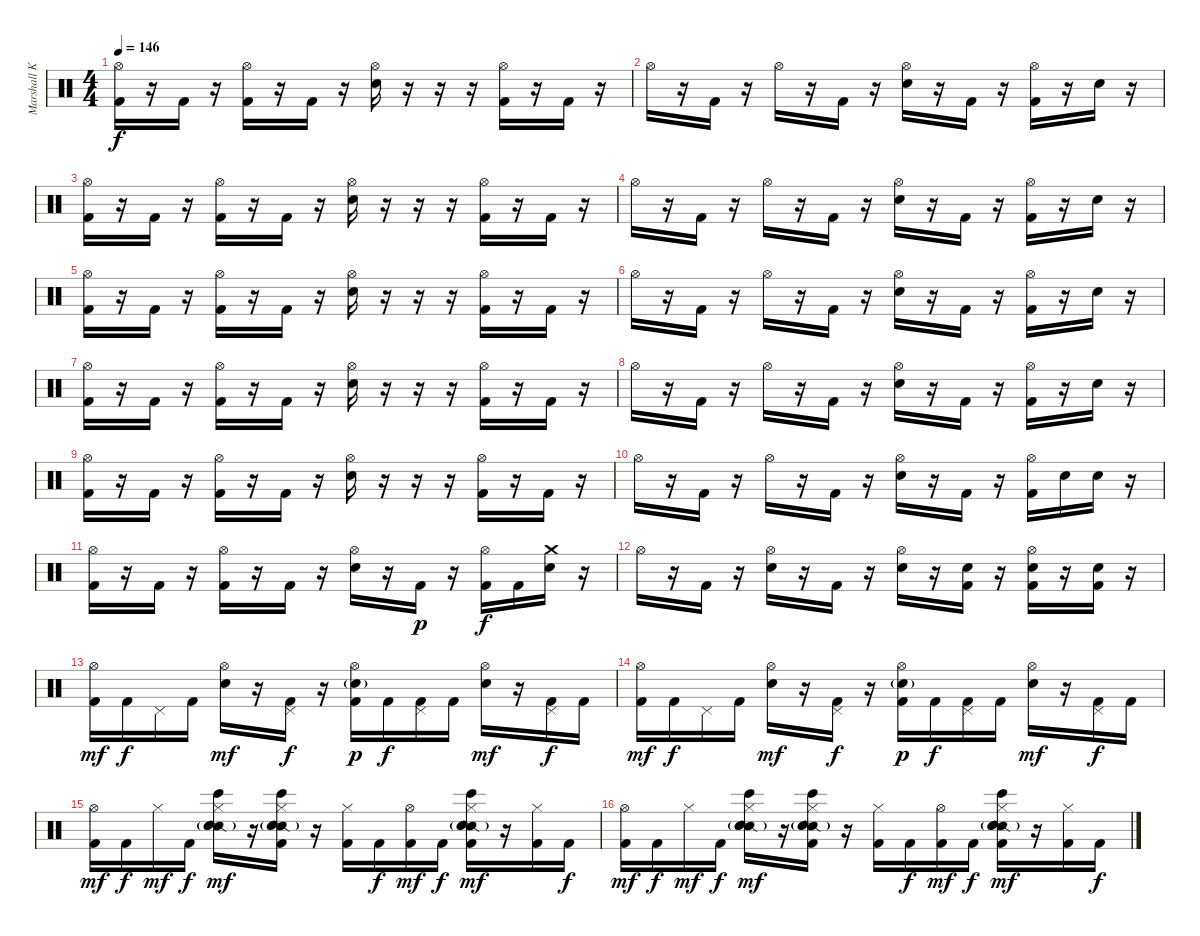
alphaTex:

\track ("Marshall Kilpatric" "Marshall K") {instrument percussion}
\staff {score}
\articulation defaults
\ts (4 4)
\tempo 146
\clef neutral
\ks c
("Hi-Hat (open)" "Kick (hit) 2").16{dy f} r.16 "Kick (hit) 2".16 r.16 ("Hi-Hat (open)" "Kick (hit) 2").16 r.16 "Kick (hit) 2".16 r.16 ("Hi-Hat (open)" "Electric Snare (hit)").16 r.16 r.16 r.16 ("Hi-Hat (open)" "Kick (hit) 2").16 r.16 "Kick (hit) 2".16 r.16 |
"Hi-Hat (open)".16 r.16 "Kick (hit) 2".16 r.16 "Hi-Hat (open)".16 r.16 "Kick (hit) 2".16 r.16 ("Hi-Hat (open)" "Electric Snare (hit)").16 r.16 "Kick (hit) 2".16 r.16 ("Hi-Hat (open)" "Kick (hit) 2").16 r.16 "Electric Snare (hit)".16 r.16 |
("Hi-Hat (open)" "Kick (hit) 2").16 r.16 "Kick (hit) 2".16 r.16 ("Hi-Hat (open)" "Kick (hit) 2").16 r.16 "Kick (hit) 2".16 r.16 ("Hi-Hat (open)" "Electric Snare (hit)").16 r.16 r.16 r.16 ("Hi-Hat (open)" "Kick (hit) 2").16 r.16 "Kick (hit) 2".16 r.16 |
"Hi-Hat (open)".16 r.16 "Kick (hit) 2".16 r.16 "Hi-Hat (open)".16 r.16 "Kick (hit) 2".16 r.16 ("Hi-Hat (open)" "Electric Snare (hit)").16 r.16 "Kick (hit) 2".16 r.16 ("Hi-Hat (open)" "Kick (hit) 2").16 r.16 "Electric Snare (hit)".16 r.16 |
("Hi-Hat (open)" "Kick (hit) 2").16 r.16 "Kick (hit) 2".16 r.16 ("Hi-Hat (open)" "Kick (hit) 2").16 r.16 "Kick (hit) 2".16 r.16 ("Hi-Hat (open)" "Electric Snare (hit)").16 r.16 r.16 r.16 ("Hi-Hat (open)" "Kick (hit) 2").16 r.16 "Kick (hit) 2".16 r.16 |
"Hi-Hat (open)".16 r.16 "Kick (hit) 2".16 r.16 "Hi-Hat (open)".16 r.16 "Kick (hit) 2".16 r.16 ("Hi-Hat (open)" "Electric Snare (hit)").16 r.16 "Kick (hit) 2".16 r.16 ("Hi-Hat (open)" "Kick (hit) 2").16 r.16 "Electric Snare (hit)".16 r.16 |
("Hi-Hat (open)" "Kick (hit) 2").16 r.16 "Kick (hit) 2".16 r.16 ("Hi-Hat (open)" "Kick (hit) 2").16 r.16 "Kick (hit) 2".16 r.16 ("Hi-Hat (open)" "Electric Snare (hit)").16 r.16 r.16 r.16 ("Hi-Hat (open)" "Kick (hit) 2").16 r.16 "Kick (hit) 2".16 r.16 |
"Hi-Hat (open)".16 r.16 "Kick (hit) 2".16 r.16 "Hi-Hat (open)".16 r.16 "Kick (hit) 2".16 r.16 ("Hi-Hat (open)" "Electric Snare (hit)").16 r.16 "Kick (hit) 2".16 r.16 ("Hi-Hat (open)" "Kick (hit) 2").16 r.16 "Electric Snare (hit)".16 r.16 |
("Hi-Hat (open)" "Kick (hit) 2").16 r.16 "Kick (hit) 2".16 r.16 ("Hi-Hat (open)" "Kick (hit) 2").16 r.16 "Kick (hit) 2".16 r.16 ("Hi-Hat (open)" "Electric Snare (hit)").16 r.16 r.16 r.16 ("Hi-Hat (open)" "Kick (hit) 2").16 r.16 "Kick (hit) 2".16 r.16 |
"Hi-Hat (open)".16 r.16 "Kick (hit) 2".16 r.16 "Hi-Hat (open)".16 r.16 "Kick (hit) 2".16 r.16 ("Hi-Hat (open)" "Electric Snare (hit)").16 r.16 "Kick (hit) 2".16 r.16 ("Hi-Hat (open)" "Kick (hit) 2").16 "Electric Snare (hit)".16 "Electric Snare (hit)".16 r.16 |
("Hi-Hat (open)" "Kick (hit) 2").16 r.16 "Kick (hit) 2".16 r.16 ("Hi-Hat (open)" "Kick (hit) 2").16 r.16 "Kick (hit) 2".16 r.16 ("Hi-Hat (open)" "Electric Snare (hit)").16 r.16 "Kick (hit) 2".16{dy p} r.16 ("Hi-Hat (open)" "Kick (hit) 2").16{dy f} "Kick (hit) 2".16 ("Crash medium (hit)" "Electric Snare (hit)").16 r.16 |
"Hi-Hat (open)".16 r.16 "Kick (hit) 2".16 r.16 ("Hi-Hat (open)" "Electric Snare (hit)").16 r.16 "Kick (hit) 2".16 r.16 ("Hi-Hat (open)" "Electric Snare (hit)").16 r.16 ("Electric Snare (hit)" "Kick (hit) 2").16 r.16 ("Hi-Hat (open)" "Electric Snare (hit)" "Kick (hit) 2").16 r.16 ("Electric Snare (hit)" "Kick (hit) 2").16 r.16 |
("Hi-Hat (open)" "Kick (hit) 2").16{dy mf} "Kick (hit) 2".16{dy f} "Pedal Hi-Hat (hit)".16 "Kick (hit) 2".16 ("Hi-Hat (open)" "Electric Snare (hit)").16{dy mf} r.16 ("Pedal Hi-Hat (hit)" "Kick (hit) 2").16{dy f} r.16 ("Hi-Hat (open)" "Snare (hit) 2"{g} "Kick (hit) 2").16{dy p} "Kick (hit) 2".16{dy f} ("Pedal Hi-Hat (hit)" "Kick (hit) 2").16 "Kick (hit) 2".16 ("Hi-Hat (open)" "Electric Snare (hit)").16{dy mf} r.16 ("Pedal Hi-Hat (hit)" "Kick (hit) 2").16{dy f} "Kick (hit) 2".16 |
("Hi-Hat (open)" "Kick (hit) 2").16{dy mf} "Kick (hit) 2".16{dy f} "Pedal Hi-Hat (hit)".16 "Kick (hit) 2".16 ("Hi-Hat (open)" "Electric Snare (hit)").16{dy mf} r.16 ("Pedal Hi-Hat (hit)" "Kick (hit) 2").16{dy f} r.16 ("Hi-Hat (open)" "Snare (hit) 2"{g} "Kick (hit) 2").16{dy p} "Kick (hit) 2".16{dy f} ("Pedal Hi-Hat (hit)" "Kick (hit) 2").16 "Kick (hit) 2".16 ("Hi-Hat (open)" "Electric Snare (hit)").16{dy mf} r.16 ("Pedal Hi-Hat (hit)" "Kick (hit) 2").16{dy f} "Kick (hit) 2".16 |
("Hi-Hat (open)" "Kick (hit) 2").16{dy mf} "Kick (hit) 2".16{dy f} "Hi-Hat (closed)".16{dy mf} "Kick (hit) 2".16{dy f} ("Snare (side stick) 2" "Snare (hit) 2"{g} "Bongo High (hit)" "Electric Snare (hit)" "Hi-Hat (closed)").16{dy mf} r.16 ("Snare (side stick) 2" "Snare (hit) 2"{g} "Bongo High (hit)" "Electric Snare (hit)" "Hi-Hat (closed)" "Kick (hit) 2").16 r.16 ("Hi-Hat (closed)" "Kick (hit) 2").16 "Kick (hit) 2".16{dy f} ("Hi-Hat (open)" "Kick (hit) 2").16{dy mf} "Kick (hit) 2".16{dy f} ("Snare (side stick) 2" "Snare (hit) 2"{g} "Bongo High (hit)" "Electric Snare (hit)" "Hi-Hat (closed)" "Kick (hit) 2").16{dy mf} r.16 ("Hi-Hat (closed)" "Kick (hit) 2").16 "Kick (hit) 2".16{dy f} |
("Hi-Hat (open)" "Kick (hit) 2").16{dy mf} "Kick (hit) 2".16{dy f} "Hi-Hat (closed)".16{dy mf} "Kick (hit) 2".16{dy f} ("Snare (side stick) 2" "Snare (hit) 2"{g} "Bongo High (hit)" "Electric Snare (hit)" "Hi-Hat (closed)").16{dy mf} r.16 ("Snare (side stick) 2" "Snare (hit) 2"{g} "Bongo High (hit)" "Electric Snare (hit)" "Hi-Hat (closed)" "Kick (hit) 2").16 r.16 ("Hi-Hat (closed)" "Kick (hit) 2").16 "Kick (hit) 2".16{dy f} ("Hi-Hat (open)" "Kick (hit) 2").16{dy mf} "Kick (hit) 2".16{dy f} ("Snare (side stick) 2" "Snare (hit) 2"{g} "Bongo High (hit)" "Electric Snare (hit)" "Hi-Hat (closed)" "Kick (hit) 2").16{dy mf} r.16 ("Hi-Hat (closed)" "Kick (hit) 2").16 "Kick (hit) 2".16{dy f}
